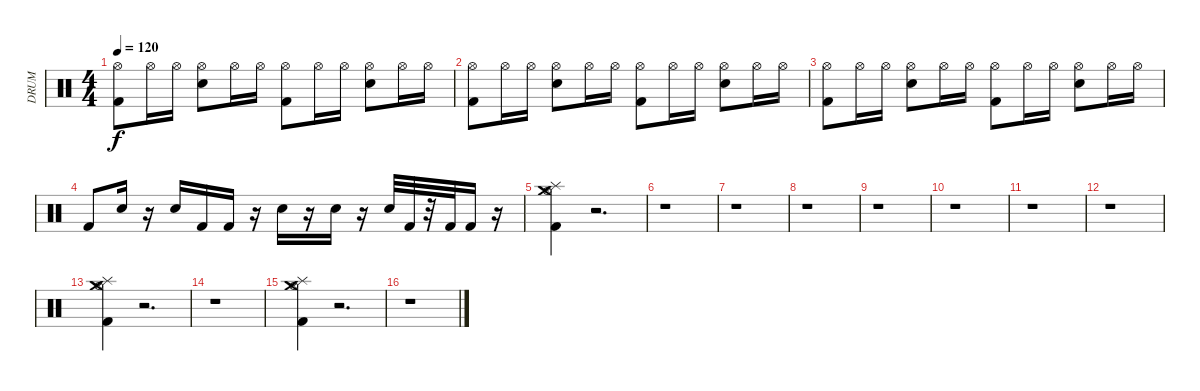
\track (" DRUM" " DRUM") {instrument percussion}
\staff {score}
\articulation defaults
\ts (4 4)
\tempo 120
\clef neutral
\ks c
("Hi-Hat (open)" "Kick (hit) 2").8{dy f} "Hi-Hat (open)".16 "Hi-Hat (open)".16 ("Hi-Hat (open)" "Electric Snare (hit)").8 "Hi-Hat (open)".16 "Hi-Hat (open)".16 ("Hi-Hat (open)" "Kick (hit) 2").8 "Hi-Hat (open)".16 "Hi-Hat (open)".16 ("Hi-Hat (open)" "Electric Snare (hit)").8 "Hi-Hat (open)".16 "Hi-Hat (open)".16 |
("Hi-Hat (open)" "Kick (hit) 2").8 "Hi-Hat (open)".16 "Hi-Hat (open)".16 ("Hi-Hat (open)" "Electric Snare (hit)").8 "Hi-Hat (open)".16 "Hi-Hat (open)".16 ("Hi-Hat (open)" "Kick (hit) 2").8 "Hi-Hat (open)".16 "Hi-Hat (open)".16 ("Hi-Hat (open)" "Electric Snare (hit)").8 "Hi-Hat (open)".16 "Hi-Hat (open)".16 |
("Hi-Hat (open)" "Kick (hit) 2").8 "Hi-Hat (open)".16 "Hi-Hat (open)".16 ("Hi-Hat (open)" "Electric Snare (hit)").8 "Hi-Hat (open)".16 "Hi-Hat (open)".16 ("Hi-Hat (open)" "Kick (hit) 2").8 "Hi-Hat (open)".16 "Hi-Hat (open)".16 ("Hi-Hat (open)" "Electric Snare (hit)").8 "Hi-Hat (open)".16 "Hi-Hat (open)".16 |
"Kick (hit) 2".8 "Electric Snare (hit)".16 r.16 "Electric Snare (hit)".16 "Kick (hit) 2".16 "Kick (hit) 2".16 r.16 "Electric Snare (hit)".16 r.16 "Electric Snare (hit)".16 r.16 "Electric Snare (hit)".32 "Kick (hit) 2".32 r.32 "Kick (hit) 2".32 "Kick (hit) 2".16 r.16 |
("Splash (hit)" "Crash medium (hit)" "Hi-Hat (open)" "Kick (hit) 2").4 r.2{d} |
r.1 |
r.1 |
r.1 |
r.1 |
r.1 |
r.1 |
r.1 |
("Hi-Hat (open)" "Crash medium (hit)" "Splash (hit)" "Kick (hit) 2").4 r.2{d} |
r.1 |
("Crash medium (hit)" "Splash (hit)" "Hi-Hat (open)" "Kick (hit) 2").4 r.2{d} |
r.1
